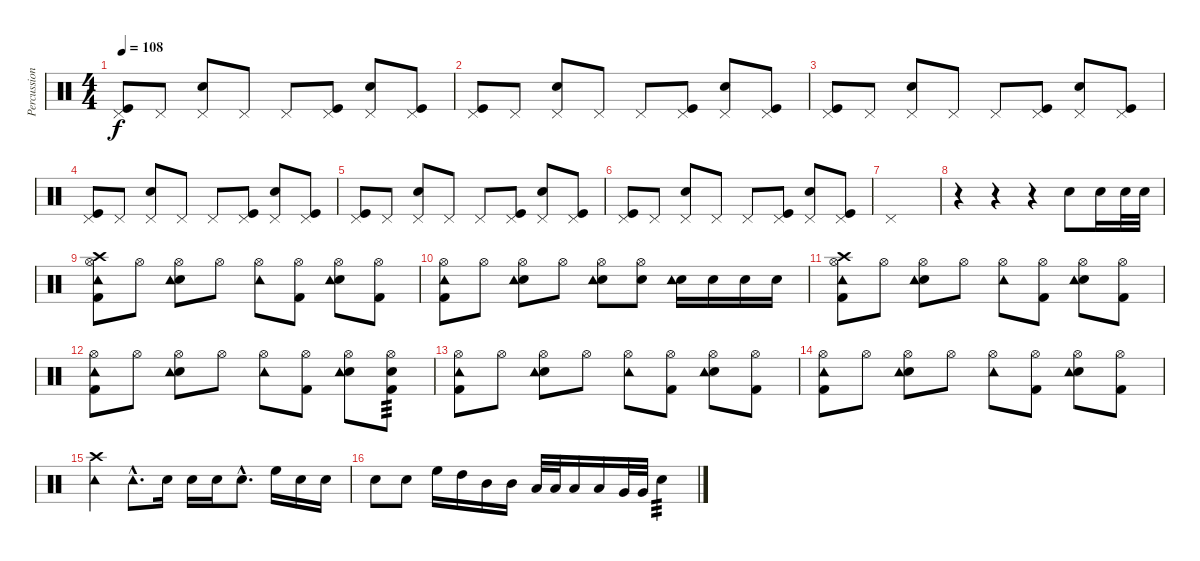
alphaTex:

\track ("Percussion" "Percussion") {instrument percussion}
\staff {score}
\articulation defaults
\ts (4 4)
\tempo 108
\clef neutral
\ks c
("Kick (hit)" "Pedal Hi-Hat (hit)").8{dy f} "Pedal Hi-Hat (hit)".8 ("Pedal Hi-Hat (hit)" "Electric Snare (hit)").8 "Pedal Hi-Hat (hit)".8 "Pedal Hi-Hat (hit)".8 ("Pedal Hi-Hat (hit)" "Kick (hit)").8 ("Pedal Hi-Hat (hit)" "Electric Snare (hit)").8 ("Pedal Hi-Hat (hit)" "Kick (hit)").8 |
("Kick (hit)" "Pedal Hi-Hat (hit)").8 "Pedal Hi-Hat (hit)".8 ("Pedal Hi-Hat (hit)" "Electric Snare (hit)").8 "Pedal Hi-Hat (hit)".8 "Pedal Hi-Hat (hit)".8 ("Pedal Hi-Hat (hit)" "Kick (hit)").8 ("Pedal Hi-Hat (hit)" "Electric Snare (hit)").8 ("Pedal Hi-Hat (hit)" "Kick (hit)").8 |
("Kick (hit)" "Pedal Hi-Hat (hit)").8 "Pedal Hi-Hat (hit)".8 ("Pedal Hi-Hat (hit)" "Electric Snare (hit)").8 "Pedal Hi-Hat (hit)".8 "Pedal Hi-Hat (hit)".8 ("Pedal Hi-Hat (hit)" "Kick (hit)").8 ("Pedal Hi-Hat (hit)" "Electric Snare (hit)").8 ("Pedal Hi-Hat (hit)" "Kick (hit)").8 |
("Kick (hit)" "Pedal Hi-Hat (hit)").8 "Pedal Hi-Hat (hit)".8 ("Pedal Hi-Hat (hit)" "Electric Snare (hit)").8 "Pedal Hi-Hat (hit)".8 "Pedal Hi-Hat (hit)".8 ("Pedal Hi-Hat (hit)" "Kick (hit)").8 ("Pedal Hi-Hat (hit)" "Electric Snare (hit)").8 ("Pedal Hi-Hat (hit)" "Kick (hit)").8 |
("Kick (hit)" "Pedal Hi-Hat (hit)").8 "Pedal Hi-Hat (hit)".8 ("Pedal Hi-Hat (hit)" "Electric Snare (hit)").8 "Pedal Hi-Hat (hit)".8 "Pedal Hi-Hat (hit)".8 ("Pedal Hi-Hat (hit)" "Kick (hit)").8 ("Pedal Hi-Hat (hit)" "Electric Snare (hit)").8 ("Pedal Hi-Hat (hit)" "Kick (hit)").8 |
("Kick (hit)" "Pedal Hi-Hat (hit)").8 "Pedal Hi-Hat (hit)".8 ("Pedal Hi-Hat (hit)" "Electric Snare (hit)").8 "Pedal Hi-Hat (hit)".8 "Pedal Hi-Hat (hit)".8 ("Pedal Hi-Hat (hit)" "Kick (hit)").8 ("Pedal Hi-Hat (hit)" "Electric Snare (hit)").8 ("Pedal Hi-Hat (hit)" "Kick (hit)").8 |
"Pedal Hi-Hat (hit)".1 |
r.4 r.4 r.4 "Electric Snare (hit)".8 "Electric Snare (hit)".16 "Electric Snare (hit)".32 "Electric Snare (hit)".32 |
("Kick (hit) 2" "Hi-Hat (open)" "Tambourine (hit)" "Crash high (hit)").8 "Hi-Hat (open)".8 ("Hi-Hat (open)" "Electric Snare (hit)" "Tambourine (hit)").8 "Hi-Hat (open)".8 ("Hi-Hat (open)" "Tambourine (hit)").8 ("Hi-Hat (open)" "Kick (hit) 2").8 ("Hi-Hat (open)" "Electric Snare (hit)" "Tambourine (hit)").8 ("Hi-Hat (open)" "Kick (hit) 2").8 |
("Kick (hit) 2" "Hi-Hat (open)" "Tambourine (hit)").8 "Hi-Hat (open)".8 ("Hi-Hat (open)" "Electric Snare (hit)" "Tambourine (hit)").8 "Hi-Hat (open)".8 ("Hi-Hat (open)" "Electric Snare (hit)" "Tambourine (hit)").8 ("Hi-Hat (open)" "Electric Snare (hit)").8 ("Electric Snare (hit)" "Tambourine (hit)").16 "Electric Snare (hit)".16 "Electric Snare (hit)".16 "Electric Snare (hit)".16 |
("Kick (hit) 2" "Hi-Hat (open)" "Tambourine (hit)" "Crash high (hit)").8 "Hi-Hat (open)".8 ("Hi-Hat (open)" "Electric Snare (hit)" "Tambourine (hit)").8 "Hi-Hat (open)".8 ("Hi-Hat (open)" "Tambourine (hit)").8 ("Hi-Hat (open)" "Kick (hit) 2").8 ("Hi-Hat (open)" "Electric Snare (hit)" "Tambourine (hit)").8 ("Hi-Hat (open)" "Kick (hit) 2").8 |
("Kick (hit) 2" "Hi-Hat (open)" "Tambourine (hit)").8 "Hi-Hat (open)".8 ("Hi-Hat (open)" "Electric Snare (hit)" "Tambourine (hit)").8 "Hi-Hat (open)".8 ("Hi-Hat (open)" "Tambourine (hit)").8 ("Hi-Hat (open)" "Kick (hit) 2").8 ("Hi-Hat (open)" "Electric Snare (hit)" "Tambourine (hit)").8 ("Hi-Hat (open)" "Kick (hit) 2" "Electric Snare (hit)").8{tp 3} |
("Kick (hit) 2" "Hi-Hat (open)" "Tambourine (hit)").8 "Hi-Hat (open)".8 ("Hi-Hat (open)" "Electric Snare (hit)" "Tambourine (hit)").8 "Hi-Hat (open)".8 ("Hi-Hat (open)" "Tambourine (hit)").8 ("Hi-Hat (open)" "Kick (hit) 2").8 ("Hi-Hat (open)" "Electric Snare (hit)" "Tambourine (hit)").8 ("Hi-Hat (open)" "Kick (hit) 2").8 |
("Kick (hit) 2" "Hi-Hat (open)" "Tambourine (hit)").8 "Hi-Hat (open)".8 ("Hi-Hat (open)" "Electric Snare (hit)" "Tambourine (hit)").8 "Hi-Hat (open)".8 ("Hi-Hat (open)" "Tambourine (hit)").8 ("Hi-Hat (open)" "Kick (hit) 2").8 ("Hi-Hat (open)" "Electric Snare (hit)" "Tambourine (hit)").8 ("Hi-Hat (open)" "Kick (hit) 2").8 |
("Crash high (hit)" "Tambourine (hit)").4 "Tambourine (hit)"{hac}.8{d} "Electric Snare (hit)".16 "Snare (hit) 2".16 "Electric Snare (hit)".16 "Electric Snare (hit)"{hac}.8{d} "High Floor Tom (hit)".16 "Electric Snare (hit)".16 "Electric Snare (hit)".16 |
"Snare (hit) 2".8 "Snare (hit) 2".8 "High Floor Tom (hit)".16 "High Tom (hit)".16 "Mid Tom (hit)".16 "Mid Tom (hit)".16 "Low Tom (hit)".32 "Low Tom (hit)".32 "Low Tom (hit)".16 "Low Tom (hit)".16 "Very Low Tom (hit)".32 "Very Low Tom (hit)".32 "Electric Snare (hit)".4{tp 3}
